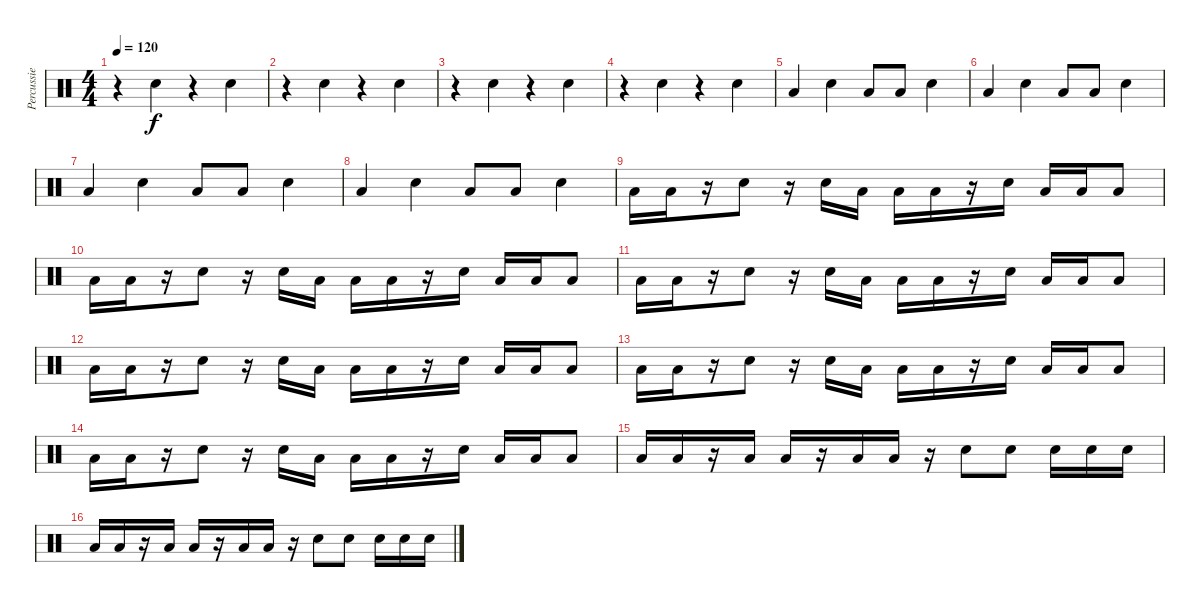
\track ("Percussie" "Percussie") {instrument percussion}
\staff {score}
\articulation defaults
\ts (4 4)
\tempo 120
\clef neutral
\ks c
r.4{dy f} "Electric Snare (hit)".4 r.4 "Electric Snare (hit)".4 |
r.4 "Electric Snare (hit)".4 r.4 "Electric Snare (hit)".4 |
r.4 "Electric Snare (hit)".4 r.4 "Electric Snare (hit)".4 |
r.4 "Electric Snare (hit)".4 r.4 "Electric Snare (hit)".4 |
"Low Floor Tom (hit)".4 "Electric Snare (hit)".4 "Low Floor Tom (hit)".8 "Low Floor Tom (hit)".8 "Electric Snare (hit)".4 |
"Low Floor Tom (hit)".4 "Electric Snare (hit)".4 "Low Floor Tom (hit)".8 "Low Floor Tom (hit)".8 "Electric Snare (hit)".4 |
"Low Floor Tom (hit)".4 "Electric Snare (hit)".4 "Low Floor Tom (hit)".8 "Low Floor Tom (hit)".8 "Electric Snare (hit)".4 |
"Low Floor Tom (hit)".4 "Electric Snare (hit)".4 "Low Floor Tom (hit)".8 "Low Floor Tom (hit)".8 "Electric Snare (hit)".4 |
"Low Floor Tom (hit)".16 "Low Floor Tom (hit)".16 r.16 "Electric Snare (hit)".8 r.16 "Electric Snare (hit)".16 "Low Floor Tom (hit)".16 "Low Floor Tom (hit)".16 "Low Floor Tom (hit)".16 r.16 "Electric Snare (hit)".16 "Low Floor Tom (hit)".16 "Low Floor Tom (hit)".16 "Low Floor Tom (hit)".8 |
"Low Floor Tom (hit)".16 "Low Floor Tom (hit)".16 r.16 "Electric Snare (hit)".8 r.16 "Electric Snare (hit)".16 "Low Floor Tom (hit)".16 "Low Floor Tom (hit)".16 "Low Floor Tom (hit)".16 r.16 "Electric Snare (hit)".16 "Low Floor Tom (hit)".16 "Low Floor Tom (hit)".16 "Low Floor Tom (hit)".8 |
"Low Floor Tom (hit)".16 "Low Floor Tom (hit)".16 r.16 "Electric Snare (hit)".8 r.16 "Electric Snare (hit)".16 "Low Floor Tom (hit)".16 "Low Floor Tom (hit)".16 "Low Floor Tom (hit)".16 r.16 "Electric Snare (hit)".16 "Low Floor Tom (hit)".16 "Low Floor Tom (hit)".16 "Low Floor Tom (hit)".8 |
"Low Floor Tom (hit)".16 "Low Floor Tom (hit)".16 r.16 "Electric Snare (hit)".8 r.16 "Electric Snare (hit)".16 "Low Floor Tom (hit)".16 "Low Floor Tom (hit)".16 "Low Floor Tom (hit)".16 r.16 "Electric Snare (hit)".16 "Low Floor Tom (hit)".16 "Low Floor Tom (hit)".16 "Low Floor Tom (hit)".8 |
"Low Floor Tom (hit)".16 "Low Floor Tom (hit)".16 r.16 "Electric Snare (hit)".8 r.16 "Electric Snare (hit)".16 "Low Floor Tom (hit)".16 "Low Floor Tom (hit)".16 "Low Floor Tom (hit)".16 r.16 "Electric Snare (hit)".16 "Low Floor Tom (hit)".16 "Low Floor Tom (hit)".16 "Low Floor Tom (hit)".8 |
"Low Floor Tom (hit)".16 "Low Floor Tom (hit)".16 r.16 "Electric Snare (hit)".8 r.16 "Electric Snare (hit)".16 "Low Floor Tom (hit)".16 "Low Floor Tom (hit)".16 "Low Floor Tom (hit)".16 r.16 "Electric Snare (hit)".16 "Low Floor Tom (hit)".16 "Low Floor Tom (hit)".16 "Low Floor Tom (hit)".8 |
"Low Floor Tom (hit)".16 "Low Floor Tom (hit)".16 r.16 "Low Floor Tom (hit)".16 "Low Floor Tom (hit)".16 r.16 "Low Floor Tom (hit)".16 "Low Floor Tom (hit)".16 r.16 "Electric Snare (hit)".8 "Electric Snare (hit)".8 "Electric Snare (hit)".16 "Electric Snare (hit)".16 "Electric Snare (hit)".16 |
"Low Floor Tom (hit)".16 "Low Floor Tom (hit)".16 r.16 "Low Floor Tom (hit)".16 "Low Floor Tom (hit)".16 r.16 "Low Floor Tom (hit)".16 "Low Floor Tom (hit)".16 r.16 "Electric Snare (hit)".8 "Electric Snare (hit)".8 "Electric Snare (hit)".16 "Electric Snare (hit)".16 "Electric Snare (hit)".16
